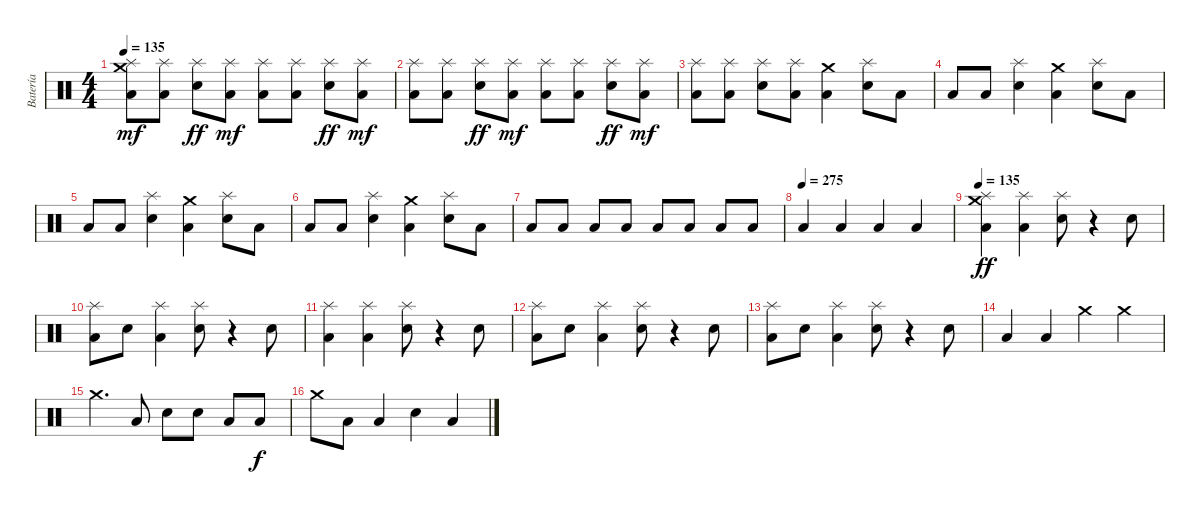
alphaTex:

\track ("Batería" "Batería") {instrument percussion}
\staff {score}
\articulation defaults
\ts (4 4)
\tempo 135
\clef neutral
\ks c
("Crash medium (hit)" "Splash (hit)" "Low Floor Tom (hit)").8{dy mf} ("Splash (hit)" "Low Floor Tom (hit)").8 ("Splash (hit)" "Electric Snare (hit)").8{dy ff} ("Splash (hit)" "Low Floor Tom (hit)").8{dy mf} ("Splash (hit)" "Low Floor Tom (hit)").8 ("Splash (hit)" "Low Floor Tom (hit)").8 ("Splash (hit)" "Electric Snare (hit)").8{dy ff} ("Splash (hit)" "Low Floor Tom (hit)").8{dy mf} |
("Splash (hit)" "Low Floor Tom (hit)").8 ("Splash (hit)" "Low Floor Tom (hit)").8 ("Splash (hit)" "Electric Snare (hit)").8{dy ff} ("Splash (hit)" "Low Floor Tom (hit)").8{dy mf} ("Splash (hit)" "Low Floor Tom (hit)").8 ("Splash (hit)" "Low Floor Tom (hit)").8 ("Splash (hit)" "Electric Snare (hit)").8{dy ff} ("Splash (hit)" "Low Floor Tom (hit)").8{dy mf} |
("Splash (hit)" "Low Floor Tom (hit)").8 ("Splash (hit)" "Low Floor Tom (hit)").8 ("Splash (hit)" "Electric Snare (hit)").8 ("Splash (hit)" "Low Floor Tom (hit)").8 ("Crash medium (hit)" "Low Floor Tom (hit)").4 ("Splash (hit)" "Electric Snare (hit)").8 "Low Floor Tom (hit)".8 |
"Low Floor Tom (hit)".8 "Low Floor Tom (hit)".8 ("Splash (hit)" "Electric Snare (hit)").4 ("Crash medium (hit)" "Low Floor Tom (hit)").4 ("Splash (hit)" "Electric Snare (hit)").8 "Low Floor Tom (hit)".8 |
"Low Floor Tom (hit)".8 "Low Floor Tom (hit)".8 ("Splash (hit)" "Electric Snare (hit)").4 ("Crash medium (hit)" "Low Floor Tom (hit)").4 ("Splash (hit)" "Electric Snare (hit)").8 "Low Floor Tom (hit)".8 |
"Low Floor Tom (hit)".8 "Low Floor Tom (hit)".8 ("Splash (hit)" "Electric Snare (hit)").4 ("Crash medium (hit)" "Low Floor Tom (hit)").4 ("Splash (hit)" "Electric Snare (hit)").8 "Low Floor Tom (hit)".8 |
"Low Floor Tom (hit)".8 "Low Floor Tom (hit)".8 "Low Floor Tom (hit)".8 "Low Floor Tom (hit)".8 "Low Floor Tom (hit)".8 "Low Floor Tom (hit)".8 "Low Floor Tom (hit)".8 "Low Floor Tom (hit)".8 |
\tempo (275)
"Low Floor Tom (hit)".4 "Low Floor Tom (hit)".4 "Low Floor Tom (hit)".4 "Low Floor Tom (hit)".4 |
\tempo 135
("Crash medium (hit)" "Splash (hit)" "Low Floor Tom (hit)").4{dy ff} ("Splash (hit)" "Low Floor Tom (hit)").4 ("Splash (hit)" "Electric Snare (hit)").8 r.4 "Electric Snare (hit)".8 |
("Splash (hit)" "Low Floor Tom (hit)").8 "Electric Snare (hit)".8 ("Splash (hit)" "Low Floor Tom (hit)").4 ("Splash (hit)" "Electric Snare (hit)").8 r.4 "Electric Snare (hit)".8 |
("Splash (hit)" "Low Floor Tom (hit)").4 ("Splash (hit)" "Low Floor Tom (hit)").4 ("Splash (hit)" "Electric Snare (hit)").8 r.4 "Electric Snare (hit)".8 |
("Splash (hit)" "Low Floor Tom (hit)").8 "Electric Snare (hit)".8 ("Splash (hit)" "Low Floor Tom (hit)").4 ("Splash (hit)" "Electric Snare (hit)").8 r.4 "Electric Snare (hit)".8 |
("Splash (hit)" "Low Floor Tom (hit)").8 "Electric Snare (hit)".8 ("Splash (hit)" "Low Floor Tom (hit)").4 ("Splash (hit)" "Electric Snare (hit)").8 r.4 "Electric Snare (hit)".8 |
"Low Floor Tom (hit)".4 "Low Floor Tom (hit)".4 "Crash medium (hit)".4 "Crash medium (hit)".4 |
"Crash medium (hit)".4{d} "Low Floor Tom (hit)".8 "Electric Snare (hit)".8 "Electric Snare (hit)".8 "Low Floor Tom (hit)".8 "Low Floor Tom (hit)".8{dy f} |
"Crash medium (hit)".8 "Low Floor Tom (hit)".8 "Low Floor Tom (hit)".4 "Electric Snare (hit)".4 "Low Floor Tom (hit)".4
